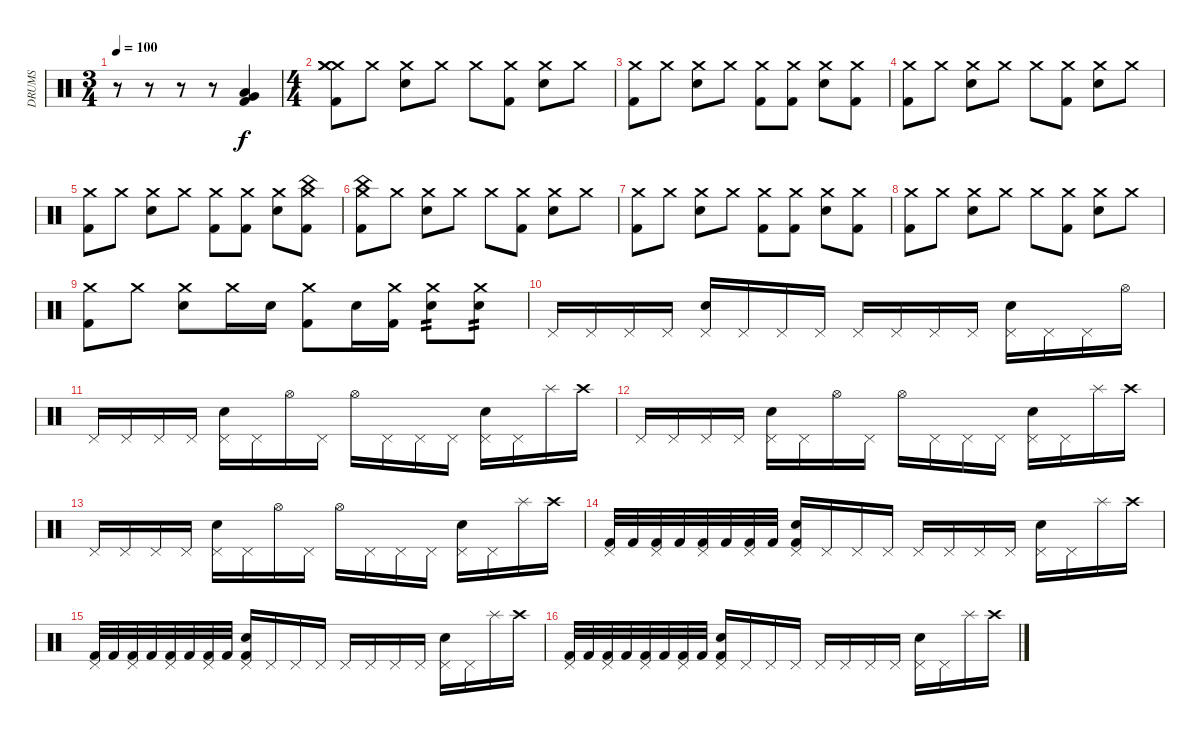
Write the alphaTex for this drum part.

\track ("DRUMS" "DRUMS") {instrument percussion}
\staff {score}
\articulation defaults
\ts (3 4)
\tempo 100
\clef neutral
\ks c
r.8{dy f} r.8 r.8 r.8 ("Very Low Tom (hit)" "Low Floor Tom (hit)" "Kick (hit) 2").4 |
\ts (4 4)
("Crash medium (hit)" "Crash medium (hit)" "Crash medium (hit)" "Kick (hit) 2").8 "Crash medium (hit)".8 ("Crash medium (hit)" "Electric Snare (hit)").8 "Crash medium (hit)".8 "Crash medium (hit)".8 ("Crash medium (hit)" "Kick (hit) 2").8 ("Crash medium (hit)" "Electric Snare (hit)").8 "Crash medium (hit)".8 |
("Crash medium (hit)" "Kick (hit) 2").8 "Crash medium (hit)".8 ("Crash medium (hit)" "Electric Snare (hit)").8 "Crash medium (hit)".8 ("Crash medium (hit)" "Kick (hit) 2").8 ("Crash medium (hit)" "Kick (hit) 2").8 ("Crash medium (hit)" "Electric Snare (hit)").8 ("Crash medium (hit)" "Kick (hit) 2").8 |
("Crash medium (hit)" "Kick (hit) 2").8 "Crash medium (hit)".8 ("Crash medium (hit)" "Electric Snare (hit)").8 "Crash medium (hit)".8 "Crash medium (hit)".8 ("Crash medium (hit)" "Kick (hit) 2").8 ("Crash medium (hit)" "Electric Snare (hit)").8 "Crash medium (hit)".8 |
("Crash medium (hit)" "Kick (hit) 2").8 "Crash medium (hit)".8 ("Crash medium (hit)" "Electric Snare (hit)").8 "Crash medium (hit)".8 ("Crash medium (hit)" "Kick (hit) 2").8 ("Crash medium (hit)" "Kick (hit) 2").8 ("Crash medium (hit)" "Electric Snare (hit)").8 ("Crash medium (hit)" "China (hit)" "Kick (hit) 2").8 |
("Crash medium (hit)" "China (hit)" "Kick (hit) 2").8 "Crash medium (hit)".8 ("Crash medium (hit)" "Electric Snare (hit)").8 "Crash medium (hit)".8 "Crash medium (hit)".8 ("Crash medium (hit)" "Kick (hit) 2").8 ("Crash medium (hit)" "Electric Snare (hit)").8 "Crash medium (hit)".8 |
("Crash medium (hit)" "Kick (hit) 2").8 "Crash medium (hit)".8 ("Crash medium (hit)" "Electric Snare (hit)").8 "Crash medium (hit)".8 ("Crash medium (hit)" "Kick (hit) 2").8 ("Crash medium (hit)" "Kick (hit) 2").8 ("Crash medium (hit)" "Electric Snare (hit)").8 ("Crash medium (hit)" "Kick (hit) 2").8 |
("Crash medium (hit)" "Kick (hit) 2").8 "Crash medium (hit)".8 ("Crash medium (hit)" "Electric Snare (hit)").8 "Crash medium (hit)".8 "Crash medium (hit)".8 ("Crash medium (hit)" "Kick (hit) 2").8 ("Crash medium (hit)" "Electric Snare (hit)").8 "Crash medium (hit)".8 |
("Crash medium (hit)" "Kick (hit) 2").8 "Crash medium (hit)".8 ("Crash medium (hit)" "Electric Snare (hit)").8 "Crash medium (hit)".16 "Electric Snare (hit)".16 ("Crash medium (hit)" "Kick (hit) 2").8 "Electric Snare (hit)".16 ("Crash medium (hit)" "Kick (hit) 2").16 ("Crash medium (hit)" "Electric Snare (hit)").8{tp 2} ("Crash medium (hit)" "Electric Snare (hit)").8{tp 2} |
"Pedal Hi-Hat (hit)".16 "Pedal Hi-Hat (hit)".16 "Pedal Hi-Hat (hit)".16 "Pedal Hi-Hat (hit)".16 ("Pedal Hi-Hat (hit)" "Electric Snare (hit)").16 "Pedal Hi-Hat (hit)".16 "Pedal Hi-Hat (hit)".16 "Pedal Hi-Hat (hit)".16 "Pedal Hi-Hat (hit)".16 "Pedal Hi-Hat (hit)".16 "Pedal Hi-Hat (hit)".16 "Pedal Hi-Hat (hit)".16 ("Pedal Hi-Hat (hit)" "Electric Snare (hit)").16 "Pedal Hi-Hat (hit)".16 "Pedal Hi-Hat (hit)".16 "Hi-Hat (open)".16 |
"Pedal Hi-Hat (hit)".16 "Pedal Hi-Hat (hit)".16 "Pedal Hi-Hat (hit)".16 "Pedal Hi-Hat (hit)".16 ("Pedal Hi-Hat (hit)" "Electric Snare (hit)").16 "Pedal Hi-Hat (hit)".16 "Hi-Hat (open)".16 "Pedal Hi-Hat (hit)".16 "Hi-Hat (open)".16 "Pedal Hi-Hat (hit)".16 "Pedal Hi-Hat (hit)".16 "Pedal Hi-Hat (hit)".16 ("Pedal Hi-Hat (hit)" "Electric Snare (hit)").16 "Pedal Hi-Hat (hit)".16 "Splash (hit)".16 "Crash high (hit)".16 |
"Pedal Hi-Hat (hit)".16 "Pedal Hi-Hat (hit)".16 "Pedal Hi-Hat (hit)".16 "Pedal Hi-Hat (hit)".16 ("Pedal Hi-Hat (hit)" "Electric Snare (hit)").16 "Pedal Hi-Hat (hit)".16 "Hi-Hat (open)".16 "Pedal Hi-Hat (hit)".16 "Hi-Hat (open)".16 "Pedal Hi-Hat (hit)".16 "Pedal Hi-Hat (hit)".16 "Pedal Hi-Hat (hit)".16 ("Pedal Hi-Hat (hit)" "Electric Snare (hit)").16 "Pedal Hi-Hat (hit)".16 "Splash (hit)".16 "Crash high (hit)".16 |
"Pedal Hi-Hat (hit)".16 "Pedal Hi-Hat (hit)".16 "Pedal Hi-Hat (hit)".16 "Pedal Hi-Hat (hit)".16 ("Pedal Hi-Hat (hit)" "Electric Snare (hit)").16 "Pedal Hi-Hat (hit)".16 "Hi-Hat (open)".16 "Pedal Hi-Hat (hit)".16 "Hi-Hat (open)".16 "Pedal Hi-Hat (hit)".16 "Pedal Hi-Hat (hit)".16 "Pedal Hi-Hat (hit)".16 ("Pedal Hi-Hat (hit)" "Electric Snare (hit)").16 "Pedal Hi-Hat (hit)".16 "Splash (hit)".16 "Crash high (hit)".16 |
("Pedal Hi-Hat (hit)" "Kick (hit) 2").32 "Kick (hit) 2".32 ("Pedal Hi-Hat (hit)" "Kick (hit) 2").32 "Kick (hit) 2".32 ("Pedal Hi-Hat (hit)" "Kick (hit) 2").32 "Kick (hit) 2".32 ("Pedal Hi-Hat (hit)" "Kick (hit) 2").32 "Kick (hit) 2".32 ("Pedal Hi-Hat (hit)" "Electric Snare (hit)" "Kick (hit) 2").16 "Pedal Hi-Hat (hit)".16 "Pedal Hi-Hat (hit)".16 "Pedal Hi-Hat (hit)".16 "Pedal Hi-Hat (hit)".16 "Pedal Hi-Hat (hit)".16 "Pedal Hi-Hat (hit)".16 "Pedal Hi-Hat (hit)".16 ("Pedal Hi-Hat (hit)" "Electric Snare (hit)").16 "Pedal Hi-Hat (hit)".16 "Splash (hit)".16 "Crash high (hit)".16 |
("Pedal Hi-Hat (hit)" "Kick (hit) 2").32 "Kick (hit) 2".32 ("Pedal Hi-Hat (hit)" "Kick (hit) 2").32 "Kick (hit) 2".32 ("Pedal Hi-Hat (hit)" "Kick (hit) 2").32 "Kick (hit) 2".32 ("Pedal Hi-Hat (hit)" "Kick (hit) 2").32 "Kick (hit) 2".32 ("Pedal Hi-Hat (hit)" "Electric Snare (hit)" "Kick (hit) 2").16 "Pedal Hi-Hat (hit)".16 "Pedal Hi-Hat (hit)".16 "Pedal Hi-Hat (hit)".16 "Pedal Hi-Hat (hit)".16 "Pedal Hi-Hat (hit)".16 "Pedal Hi-Hat (hit)".16 "Pedal Hi-Hat (hit)".16 ("Pedal Hi-Hat (hit)" "Electric Snare (hit)").16 "Pedal Hi-Hat (hit)".16 "Splash (hit)".16 "Crash high (hit)".16 |
("Pedal Hi-Hat (hit)" "Kick (hit) 2").32 "Kick (hit) 2".32 ("Pedal Hi-Hat (hit)" "Kick (hit) 2").32 "Kick (hit) 2".32 ("Pedal Hi-Hat (hit)" "Kick (hit) 2").32 "Kick (hit) 2".32 ("Pedal Hi-Hat (hit)" "Kick (hit) 2").32 "Kick (hit) 2".32 ("Pedal Hi-Hat (hit)" "Electric Snare (hit)" "Kick (hit) 2").16 "Pedal Hi-Hat (hit)".16 "Pedal Hi-Hat (hit)".16 "Pedal Hi-Hat (hit)".16 "Pedal Hi-Hat (hit)".16 "Pedal Hi-Hat (hit)".16 "Pedal Hi-Hat (hit)".16 "Pedal Hi-Hat (hit)".16 ("Pedal Hi-Hat (hit)" "Electric Snare (hit)").16 "Pedal Hi-Hat (hit)".16 "Splash (hit)".16 "Crash high (hit)".16
